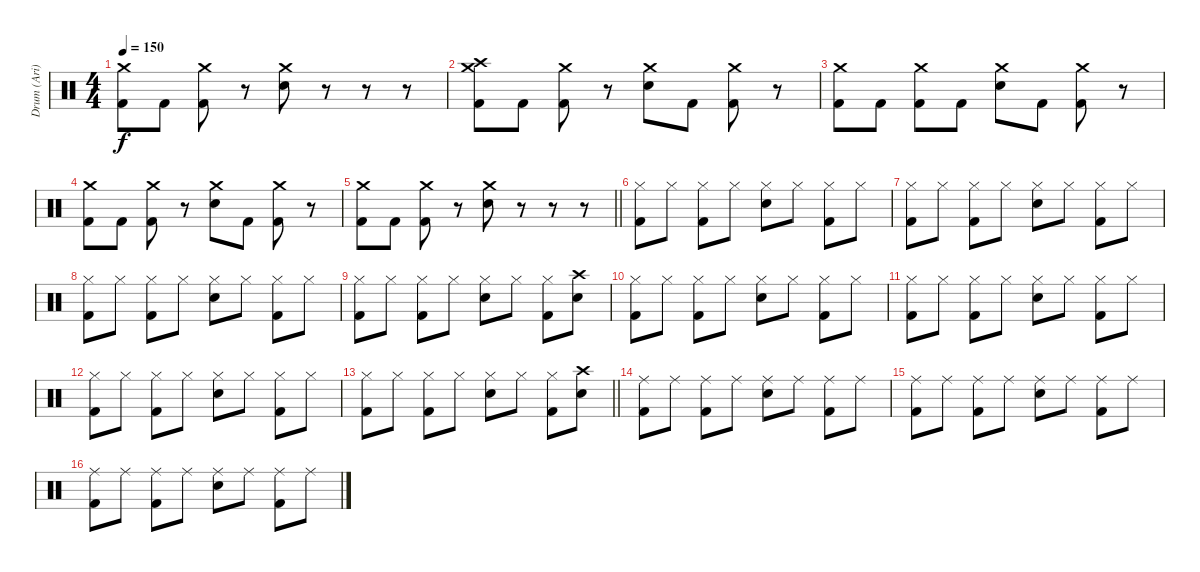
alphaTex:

\track ("Drum (Ari)" "Drum (Ari)") {instrument percussion}
\staff {score}
\articulation defaults
\ts (4 4)
\tempo 150
\clef neutral
\ks c
("Crash medium (hit)" "Kick (hit) 2").8{dy f} "Kick (hit) 2".8 ("Crash medium (hit)" "Kick (hit) 2").8 r.8 ("Crash medium (hit)" "Electric Snare (hit)").8 r.8 r.8 r.8 |
("Crash high (hit)" "Crash medium (hit)" "Kick (hit) 2").8 "Kick (hit) 2".8 ("Crash medium (hit)" "Kick (hit) 2").8 r.8 ("Crash medium (hit)" "Electric Snare (hit)").8 "Kick (hit) 2".8 ("Crash medium (hit)" "Kick (hit) 2").8 r.8 |
("Crash medium (hit)" "Kick (hit) 2").8 "Kick (hit) 2".8 ("Crash medium (hit)" "Kick (hit) 2").8 "Kick (hit) 2".8 ("Crash medium (hit)" "Electric Snare (hit)").8 "Kick (hit) 2".8 ("Crash medium (hit)" "Kick (hit) 2").8 r.8 |
("Crash medium (hit)" "Kick (hit) 2").8 "Kick (hit) 2".8 ("Crash medium (hit)" "Kick (hit) 2").8 r.8 ("Crash medium (hit)" "Electric Snare (hit)").8 "Kick (hit) 2".8 ("Crash medium (hit)" "Kick (hit) 2").8 r.8 |
\barLineRight lightlight
("Crash medium (hit)" "Kick (hit) 2").8 "Kick (hit) 2".8 ("Crash medium (hit)" "Kick (hit) 2").8 r.8 ("Crash medium (hit)" "Electric Snare (hit)").8 r.8 r.8 r.8 |
\section ("" "")
("Hi-Hat (closed)" "Kick (hit) 2").8 "Hi-Hat (closed)".8 ("Hi-Hat (closed)" "Kick (hit) 2").8 "Hi-Hat (closed)".8 ("Hi-Hat (closed)" "Electric Snare (hit)").8 "Hi-Hat (closed)".8 ("Hi-Hat (closed)" "Kick (hit) 2").8 "Hi-Hat (closed)".8 |
("Hi-Hat (closed)" "Kick (hit) 2").8 "Hi-Hat (closed)".8 ("Hi-Hat (closed)" "Kick (hit) 2").8 "Hi-Hat (closed)".8 ("Hi-Hat (closed)" "Electric Snare (hit)").8 "Hi-Hat (closed)".8 ("Hi-Hat (closed)" "Kick (hit) 2").8 "Hi-Hat (closed)".8 |
("Hi-Hat (closed)" "Kick (hit) 2").8 "Hi-Hat (closed)".8 ("Hi-Hat (closed)" "Kick (hit) 2").8 "Hi-Hat (closed)".8 ("Hi-Hat (closed)" "Electric Snare (hit)").8 "Hi-Hat (closed)".8 ("Hi-Hat (closed)" "Kick (hit) 2").8 "Hi-Hat (closed)".8 |
("Hi-Hat (closed)" "Kick (hit) 2").8 "Hi-Hat (closed)".8 ("Hi-Hat (closed)" "Kick (hit) 2").8 "Hi-Hat (closed)".8 ("Hi-Hat (closed)" "Electric Snare (hit)").8 "Hi-Hat (closed)".8 ("Hi-Hat (closed)" "Kick (hit) 2").8 ("Crash high (hit)" "Electric Snare (hit)").8 |
("Hi-Hat (closed)" "Kick (hit) 2").8 "Hi-Hat (closed)".8 ("Hi-Hat (closed)" "Kick (hit) 2").8 "Hi-Hat (closed)".8 ("Hi-Hat (closed)" "Electric Snare (hit)").8 "Hi-Hat (closed)".8 ("Hi-Hat (closed)" "Kick (hit) 2").8 "Hi-Hat (closed)".8 |
("Hi-Hat (closed)" "Kick (hit) 2").8 "Hi-Hat (closed)".8 ("Hi-Hat (closed)" "Kick (hit) 2").8 "Hi-Hat (closed)".8 ("Hi-Hat (closed)" "Electric Snare (hit)").8 "Hi-Hat (closed)".8 ("Hi-Hat (closed)" "Kick (hit) 2").8 "Hi-Hat (closed)".8 |
("Hi-Hat (closed)" "Kick (hit) 2").8 "Hi-Hat (closed)".8 ("Hi-Hat (closed)" "Kick (hit) 2").8 "Hi-Hat (closed)".8 ("Hi-Hat (closed)" "Electric Snare (hit)").8 "Hi-Hat (closed)".8 ("Hi-Hat (closed)" "Kick (hit) 2").8 "Hi-Hat (closed)".8 |
\barLineRight lightlight
("Hi-Hat (closed)" "Kick (hit) 2").8 "Hi-Hat (closed)".8 ("Hi-Hat (closed)" "Kick (hit) 2").8 "Hi-Hat (closed)".8 ("Hi-Hat (closed)" "Electric Snare (hit)").8 "Hi-Hat (closed)".8 ("Hi-Hat (closed)" "Kick (hit) 2").8 ("Crash high (hit)" "Electric Snare (hit)").8 |
\section ("" "")
("Ride (middle)" "Kick (hit) 2").8 "Ride (middle)".8 ("Ride (middle)" "Kick (hit) 2").8 "Ride (middle)".8 ("Ride (middle)" "Electric Snare (hit)").8 "Ride (middle)".8 ("Ride (middle)" "Kick (hit) 2").8 "Ride (middle)".8 |
("Ride (middle)" "Kick (hit) 2").8 "Ride (middle)".8 ("Ride (middle)" "Kick (hit) 2").8 "Ride (middle)".8 ("Ride (middle)" "Electric Snare (hit)").8 "Ride (middle)".8 ("Ride (middle)" "Kick (hit) 2").8 "Ride (middle)".8 |
("Ride (middle)" "Kick (hit) 2").8 "Ride (middle)".8 ("Ride (middle)" "Kick (hit) 2").8 "Ride (middle)".8 ("Ride (middle)" "Electric Snare (hit)").8 "Ride (middle)".8 ("Ride (middle)" "Kick (hit) 2").8 "Ride (middle)".8
